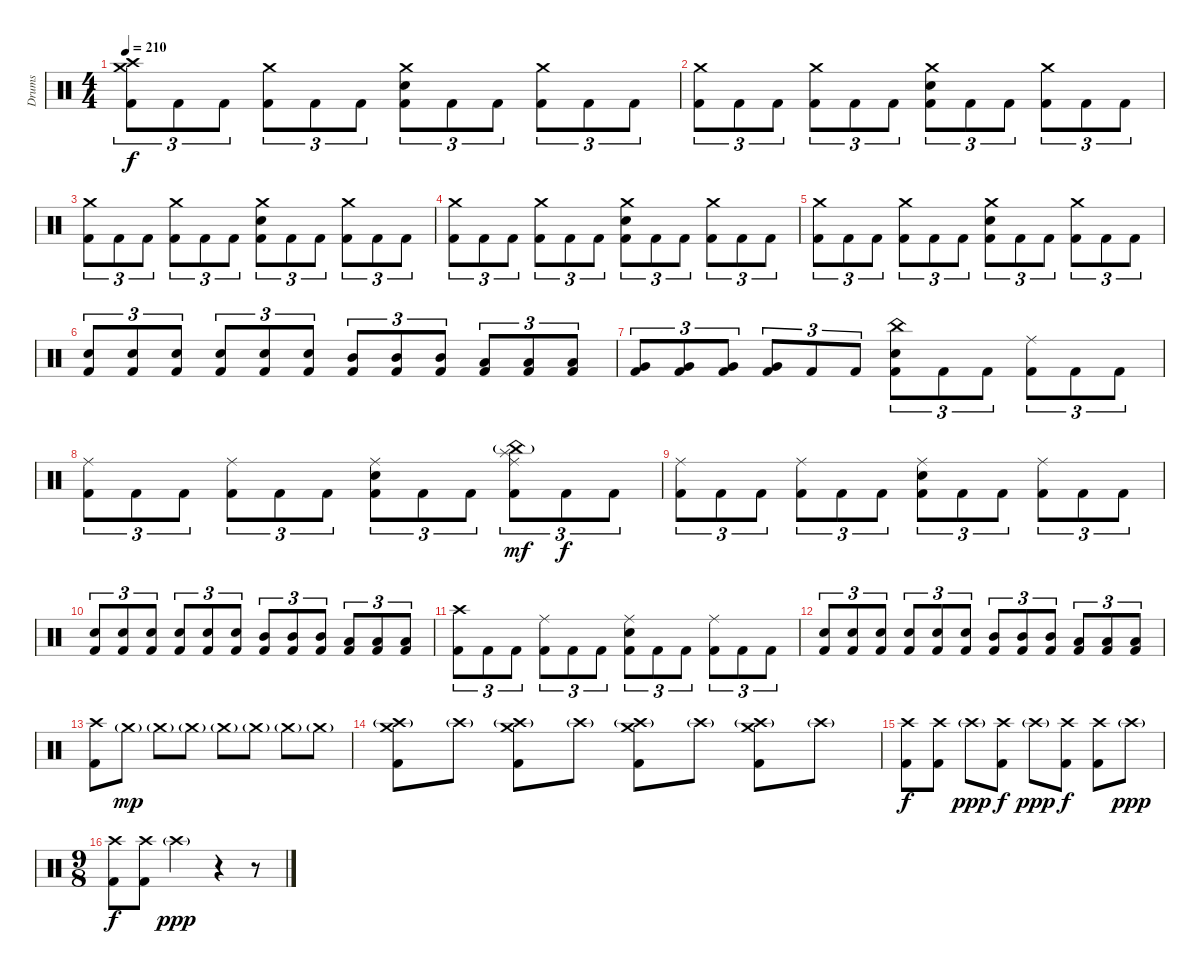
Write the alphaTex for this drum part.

\track ("Drums" "Drums") {instrument percussion}
\staff {score}
\articulation defaults
\ts (4 4)
\tempo 210
\clef neutral
\ks c
("Crash medium (hit)" "Crash high (hit)" "Kick (hit) 2").8{tu (3 2) dy f} "Kick (hit) 2".8{tu (3 2)} "Kick (hit) 2".8{tu (3 2)} ("Crash medium (hit)" "Kick (hit) 2").8{tu (3 2)} "Kick (hit) 2".8{tu (3 2)} "Kick (hit) 2".8{tu (3 2)} ("Crash medium (hit)" "Kick (hit) 2" "Electric Snare (hit)").8{tu (3 2)} "Kick (hit) 2".8{tu (3 2)} "Kick (hit) 2".8{tu (3 2)} ("Crash medium (hit)" "Kick (hit) 2").8{tu (3 2)} "Kick (hit) 2".8{tu (3 2)} "Kick (hit) 2".8{tu (3 2)} |
("Crash medium (hit)" "Kick (hit) 2").8{tu (3 2)} "Kick (hit) 2".8{tu (3 2)} "Kick (hit) 2".8{tu (3 2)} ("Crash medium (hit)" "Kick (hit) 2").8{tu (3 2)} "Kick (hit) 2".8{tu (3 2)} "Kick (hit) 2".8{tu (3 2)} ("Crash medium (hit)" "Kick (hit) 2" "Electric Snare (hit)").8{tu (3 2)} "Kick (hit) 2".8{tu (3 2)} "Kick (hit) 2".8{tu (3 2)} ("Crash medium (hit)" "Kick (hit) 2").8{tu (3 2)} "Kick (hit) 2".8{tu (3 2)} "Kick (hit) 2".8{tu (3 2)} |
("Crash medium (hit)" "Kick (hit) 2").8{tu (3 2)} "Kick (hit) 2".8{tu (3 2)} "Kick (hit) 2".8{tu (3 2)} ("Crash medium (hit)" "Kick (hit) 2").8{tu (3 2)} "Kick (hit) 2".8{tu (3 2)} "Kick (hit) 2".8{tu (3 2)} ("Crash medium (hit)" "Kick (hit) 2" "Electric Snare (hit)").8{tu (3 2)} "Kick (hit) 2".8{tu (3 2)} "Kick (hit) 2".8{tu (3 2)} ("Crash medium (hit)" "Kick (hit) 2").8{tu (3 2)} "Kick (hit) 2".8{tu (3 2)} "Kick (hit) 2".8{tu (3 2)} |
("Crash medium (hit)" "Kick (hit) 2").8{tu (3 2)} "Kick (hit) 2".8{tu (3 2)} "Kick (hit) 2".8{tu (3 2)} ("Crash medium (hit)" "Kick (hit) 2").8{tu (3 2)} "Kick (hit) 2".8{tu (3 2)} "Kick (hit) 2".8{tu (3 2)} ("Crash medium (hit)" "Kick (hit) 2" "Electric Snare (hit)").8{tu (3 2)} "Kick (hit) 2".8{tu (3 2)} "Kick (hit) 2".8{tu (3 2)} ("Crash medium (hit)" "Kick (hit) 2").8{tu (3 2)} "Kick (hit) 2".8{tu (3 2)} "Kick (hit) 2".8{tu (3 2)} |
("Crash medium (hit)" "Kick (hit) 2").8{tu (3 2)} "Kick (hit) 2".8{tu (3 2)} "Kick (hit) 2".8{tu (3 2)} ("Crash medium (hit)" "Kick (hit) 2").8{tu (3 2)} "Kick (hit) 2".8{tu (3 2)} "Kick (hit) 2".8{tu (3 2)} ("Crash medium (hit)" "Kick (hit) 2" "Electric Snare (hit)").8{tu (3 2)} "Kick (hit) 2".8{tu (3 2)} "Kick (hit) 2".8{tu (3 2)} ("Crash medium (hit)" "Kick (hit) 2").8{tu (3 2)} "Kick (hit) 2".8{tu (3 2)} "Kick (hit) 2".8{tu (3 2)} |
("Kick (hit) 2" "Electric Snare (hit)").8{tu (3 2)} ("Kick (hit) 2" "Electric Snare (hit)").8{tu (3 2)} ("Kick (hit) 2" "Electric Snare (hit)").8{tu (3 2)} ("Kick (hit) 2" "Electric Snare (hit)").8{tu (3 2)} ("Kick (hit) 2" "Electric Snare (hit)").8{tu (3 2)} ("Kick (hit) 2" "Electric Snare (hit)").8{tu (3 2)} ("Mid Tom (hit)" "Kick (hit) 2").8{tu (3 2)} ("Mid Tom (hit)" "Kick (hit) 2").8{tu (3 2)} ("Mid Tom (hit)" "Kick (hit) 2").8{tu (3 2)} ("Low Tom (hit)" "Kick (hit) 2").8{tu (3 2)} ("Low Tom (hit)" "Kick (hit) 2").8{tu (3 2)} ("Low Tom (hit)" "Kick (hit) 2").8{tu (3 2)} |
("Very Low Tom (hit)" "Kick (hit) 2").8{tu (3 2)} ("Very Low Tom (hit)" "Kick (hit) 2").8{tu (3 2)} ("Very Low Tom (hit)" "Kick (hit) 2").8{tu (3 2)} ("Very Low Tom (hit)" "Kick (hit) 2").8{tu (3 2)} "Kick (hit) 2".8{tu (3 2)} "Kick (hit) 2".8{tu (3 2)} ("China (hit)" "Kick (hit) 2" "Electric Snare (hit)").8{tu (3 2)} "Kick (hit) 2".8{tu (3 2)} "Kick (hit) 2".8{tu (3 2)} ("Ride (middle)" "Kick (hit) 2").8{tu (3 2)} "Kick (hit) 2".8{tu (3 2)} "Kick (hit) 2".8{tu (3 2)} |
("Ride (middle)" "Kick (hit) 2").8{tu (3 2)} "Kick (hit) 2".8{tu (3 2)} "Kick (hit) 2".8{tu (3 2)} ("Ride (middle)" "Kick (hit) 2").8{tu (3 2)} "Kick (hit) 2".8{tu (3 2)} "Kick (hit) 2".8{tu (3 2)} ("Ride (middle)" "Kick (hit) 2" "Electric Snare (hit)").8{tu (3 2)} "Kick (hit) 2".8{tu (3 2)} "Kick (hit) 2".8{tu (3 2)} ("Ride (middle)" "Splash (hit)" "China (hit)"{g} "Kick (hit) 2").8{tu (3 2) dy mf} "Kick (hit) 2".8{tu (3 2) dy f} "Kick (hit) 2".8{tu (3 2)} |
("Ride (middle)" "Kick (hit) 2").8{tu (3 2)} "Kick (hit) 2".8{tu (3 2)} "Kick (hit) 2".8{tu (3 2)} ("Ride (middle)" "Kick (hit) 2").8{tu (3 2)} "Kick (hit) 2".8{tu (3 2)} "Kick (hit) 2".8{tu (3 2)} ("Ride (middle)" "Kick (hit) 2" "Electric Snare (hit)").8{tu (3 2)} "Kick (hit) 2".8{tu (3 2)} "Kick (hit) 2".8{tu (3 2)} ("Ride (middle)" "Kick (hit) 2").8{tu (3 2)} "Kick (hit) 2".8{tu (3 2)} "Kick (hit) 2".8{tu (3 2)} |
("Kick (hit) 2" "Electric Snare (hit)").8{tu (3 2)} ("Kick (hit) 2" "Electric Snare (hit)").8{tu (3 2)} ("Kick (hit) 2" "Electric Snare (hit)").8{tu (3 2)} ("Kick (hit) 2" "Electric Snare (hit)").8{tu (3 2)} ("Kick (hit) 2" "Electric Snare (hit)").8{tu (3 2)} ("Kick (hit) 2" "Electric Snare (hit)").8{tu (3 2)} ("Mid Tom (hit)" "Kick (hit) 2").8{tu (3 2)} ("Mid Tom (hit)" "Kick (hit) 2").8{tu (3 2)} ("Mid Tom (hit)" "Kick (hit) 2").8{tu (3 2)} ("Low Tom (hit)" "Kick (hit) 2").8{tu (3 2)} ("Low Tom (hit)" "Kick (hit) 2").8{tu (3 2)} ("Low Tom (hit)" "Kick (hit) 2").8{tu (3 2)} |
("Crash high (hit)" "Kick (hit) 2").8{tu (3 2)} "Kick (hit) 2".8{tu (3 2)} "Kick (hit) 2".8{tu (3 2)} ("Ride (middle)" "Kick (hit) 2").8{tu (3 2)} "Kick (hit) 2".8{tu (3 2)} "Kick (hit) 2".8{tu (3 2)} ("Ride (middle)" "Kick (hit) 2" "Electric Snare (hit)").8{tu (3 2)} "Kick (hit) 2".8{tu (3 2)} "Kick (hit) 2".8{tu (3 2)} ("Ride (middle)" "Kick (hit) 2").8{tu (3 2)} "Kick (hit) 2".8{tu (3 2)} "Kick (hit) 2".8{tu (3 2)} |
("Kick (hit) 2" "Electric Snare (hit)").8{tu (3 2)} ("Kick (hit) 2" "Electric Snare (hit)").8{tu (3 2)} ("Kick (hit) 2" "Electric Snare (hit)").8{tu (3 2)} ("Kick (hit) 2" "Electric Snare (hit)").8{tu (3 2)} ("Kick (hit) 2" "Electric Snare (hit)").8{tu (3 2)} ("Kick (hit) 2" "Electric Snare (hit)").8{tu (3 2)} ("Mid Tom (hit)" "Kick (hit) 2").8{tu (3 2)} ("Mid Tom (hit)" "Kick (hit) 2").8{tu (3 2)} ("Mid Tom (hit)" "Kick (hit) 2").8{tu (3 2)} ("Low Tom (hit)" "Kick (hit) 2").8{tu (3 2)} ("Low Tom (hit)" "Kick (hit) 2").8{tu (3 2)} ("Low Tom (hit)" "Kick (hit) 2").8{tu (3 2)} |
("Crash high (hit)" "Kick (hit) 2").8 "Crash medium (hit)"{g}.8{dy mp} "Crash medium (hit)"{g}.8 "Crash medium (hit)"{g}.8 "Crash medium (hit)"{g}.8 "Crash medium (hit)"{g}.8 "Crash medium (hit)"{g}.8 "Crash medium (hit)"{g}.8 |
("Crash medium (hit)" "Crash high (hit)"{g} "Kick (hit) 2").8 "Crash high (hit)"{g}.8 ("Crash medium (hit)" "Crash high (hit)"{g} "Kick (hit) 2").8 "Crash high (hit)"{g}.8 ("Crash medium (hit)" "Crash high (hit)"{g} "Kick (hit) 2").8 "Crash high (hit)"{g}.8 ("Crash medium (hit)" "Crash high (hit)"{g} "Kick (hit) 2").8 "Crash high (hit)"{g}.8 |
("Crash high (hit)" "Kick (hit) 2").8{dy f} ("Crash high (hit)" "Kick (hit) 2").8 "Crash high (hit)"{g}.8{dy ppp} ("Crash high (hit)" "Kick (hit) 2").8{dy f} "Crash high (hit)"{g}.8{dy ppp} ("Crash high (hit)" "Kick (hit) 2").8{dy f} ("Crash high (hit)" "Kick (hit) 2").8 "Crash high (hit)"{g}.8{dy ppp} |
\ts (9 8)
("Crash high (hit)" "Kick (hit) 2").8{dy f} ("Crash high (hit)" "Kick (hit) 2").8 "Crash high (hit)"{g}.2{dy ppp} r.4 r.8
